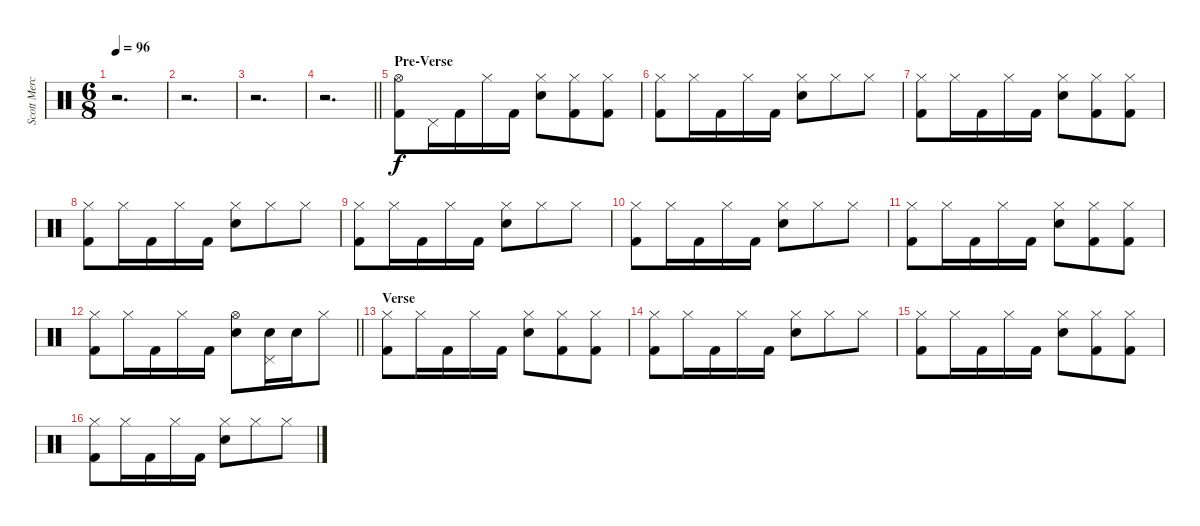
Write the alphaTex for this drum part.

\track ("Scott Mercado Drums" "Scott Merc") {instrument percussion}
\staff {score}
\articulation defaults
\ts (6 8)
\tempo 96
\clef neutral
\ks c
r.2{d dy f} |
r.2{d} |
r.2{d} |
\barLineRight lightlight
r.2{d} |
\section ("" "Pre-Verse")
("Hi-Hat (open)" "Kick (hit) 2").8 "Pedal Hi-Hat (hit)".16 "Kick (hit) 2".16 "Hi-Hat (closed)".16 "Kick (hit) 2".16 ("Hi-Hat (closed)" "Electric Snare (hit)").8 ("Hi-Hat (closed)" "Kick (hit) 2").8 ("Hi-Hat (closed)" "Kick (hit) 2").8 |
("Hi-Hat (closed)" "Kick (hit) 2").8 "Hi-Hat (closed)".16 "Kick (hit) 2".16 "Hi-Hat (closed)".16 "Kick (hit) 2".16 ("Hi-Hat (closed)" "Electric Snare (hit)").8 "Hi-Hat (closed)".8 "Hi-Hat (closed)".8 |
("Hi-Hat (closed)" "Kick (hit) 2").8 "Hi-Hat (closed)".16 "Kick (hit) 2".16 "Hi-Hat (closed)".16 "Kick (hit) 2".16 ("Hi-Hat (closed)" "Electric Snare (hit)").8 ("Hi-Hat (closed)" "Kick (hit) 2").8 ("Hi-Hat (closed)" "Kick (hit) 2").8 |
("Hi-Hat (closed)" "Kick (hit) 2").8 "Hi-Hat (closed)".16 "Kick (hit) 2".16 "Hi-Hat (closed)".16 "Kick (hit) 2".16 ("Hi-Hat (closed)" "Electric Snare (hit)").8 "Hi-Hat (closed)".8 "Hi-Hat (closed)".8 |
("Hi-Hat (closed)" "Kick (hit) 2").8 "Hi-Hat (closed)".16 "Kick (hit) 2".16 "Hi-Hat (closed)".16 "Kick (hit) 2".16 ("Hi-Hat (closed)" "Electric Snare (hit)").8 "Hi-Hat (closed)".8 "Hi-Hat (closed)".8 |
("Hi-Hat (closed)" "Kick (hit) 2").8 "Hi-Hat (closed)".16 "Kick (hit) 2".16 "Hi-Hat (closed)".16 "Kick (hit) 2".16 ("Hi-Hat (closed)" "Electric Snare (hit)").8 "Hi-Hat (closed)".8 "Hi-Hat (closed)".8 |
("Hi-Hat (closed)" "Kick (hit) 2").8 "Hi-Hat (closed)".16 "Kick (hit) 2".16 "Hi-Hat (closed)".16 "Kick (hit) 2".16 ("Hi-Hat (closed)" "Electric Snare (hit)").8 ("Hi-Hat (closed)" "Kick (hit) 2").8 ("Hi-Hat (closed)" "Kick (hit) 2").8 |
\barLineRight lightlight
("Hi-Hat (closed)" "Kick (hit) 2").8 "Hi-Hat (closed)".16 "Kick (hit) 2".16 "Hi-Hat (closed)".16 "Kick (hit) 2".16 ("Hi-Hat (open)" "Electric Snare (hit)").8 ("Pedal Hi-Hat (hit)" "Electric Snare (hit)").16 "Electric Snare (hit)".16 "Hi-Hat (closed)".8 |
\section ("" "Verse")
("Hi-Hat (closed)" "Kick (hit) 2").8 "Hi-Hat (closed)".16 "Kick (hit) 2".16 "Hi-Hat (closed)".16 "Kick (hit) 2".16 ("Hi-Hat (closed)" "Electric Snare (hit)").8 ("Hi-Hat (closed)" "Kick (hit) 2").8 ("Hi-Hat (closed)" "Kick (hit) 2").8 |
("Hi-Hat (closed)" "Kick (hit) 2").8 "Hi-Hat (closed)".16 "Kick (hit) 2".16 "Hi-Hat (closed)".16 "Kick (hit) 2".16 ("Hi-Hat (closed)" "Electric Snare (hit)").8 "Hi-Hat (closed)".8 "Hi-Hat (closed)".8 |
("Hi-Hat (closed)" "Kick (hit) 2").8 "Hi-Hat (closed)".16 "Kick (hit) 2".16 "Hi-Hat (closed)".16 "Kick (hit) 2".16 ("Hi-Hat (closed)" "Electric Snare (hit)").8 ("Hi-Hat (closed)" "Kick (hit) 2").8 ("Hi-Hat (closed)" "Kick (hit) 2").8 |
("Hi-Hat (closed)" "Kick (hit) 2").8 "Hi-Hat (closed)".16 "Kick (hit) 2".16 "Hi-Hat (closed)".16 "Kick (hit) 2".16 ("Hi-Hat (closed)" "Electric Snare (hit)").8 "Hi-Hat (closed)".8 "Hi-Hat (closed)".8
